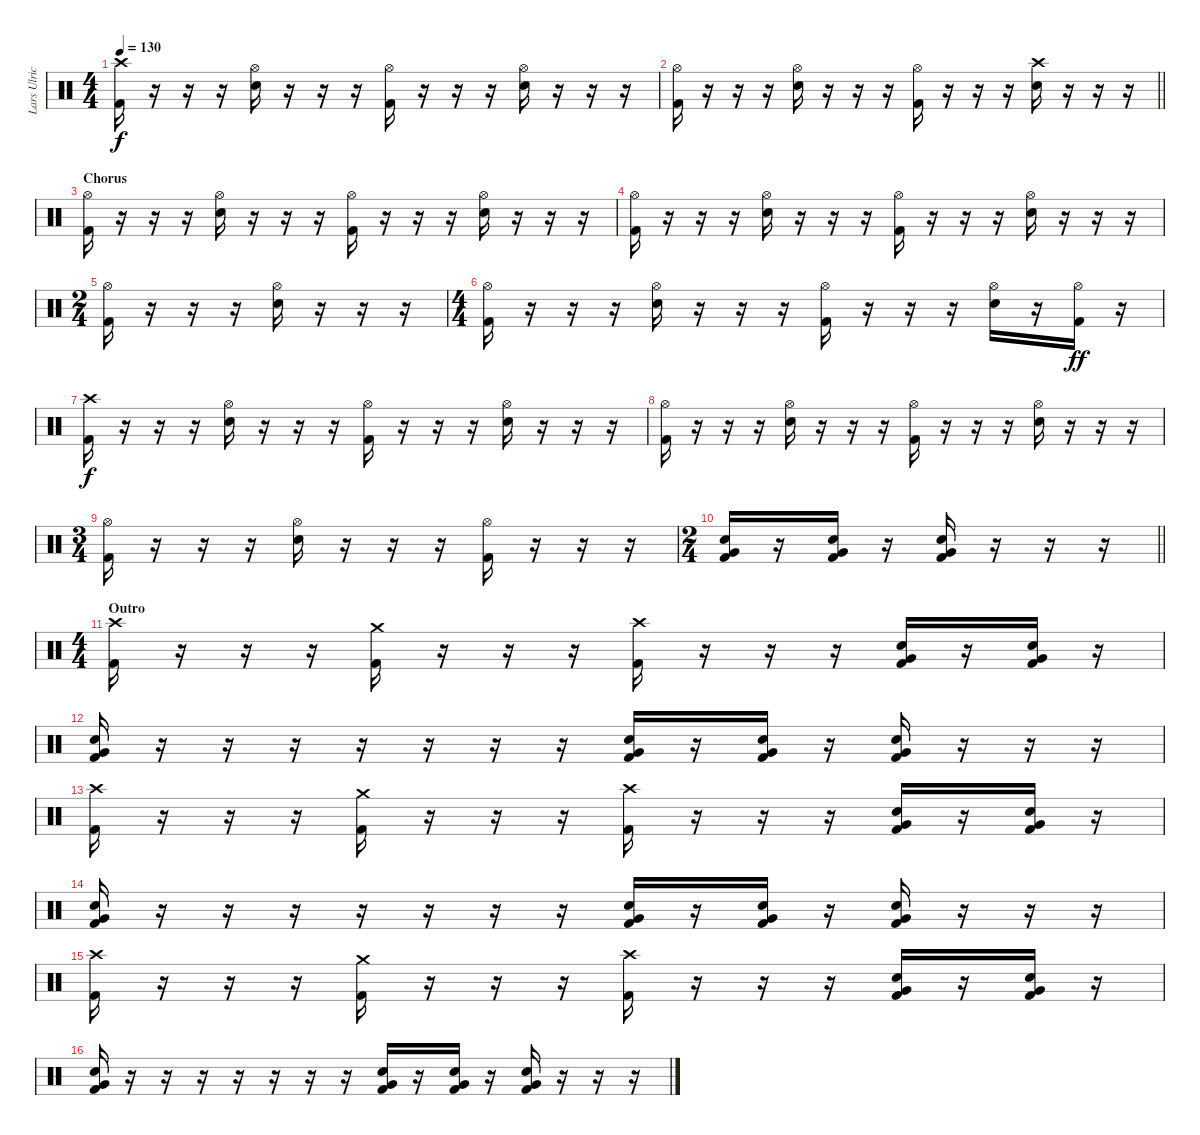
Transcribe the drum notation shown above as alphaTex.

\track ("Lars Ulrich" "Lars Ulric") {instrument percussion}
\staff {score}
\articulation defaults
\ts (4 4)
\tempo 130
\clef neutral
\ks c
("Crash high (hit)" "Kick (hit) 2").16{dy f} r.16 r.16 r.16 ("Electric Snare (hit)" "Hi-Hat (open)").16 r.16 r.16 r.16 ("Hi-Hat (open)" "Kick (hit) 2").16 r.16 r.16 r.16 ("Electric Snare (hit)" "Hi-Hat (open)").16 r.16 r.16 r.16 |
\barLineRight lightlight
("Hi-Hat (open)" "Kick (hit) 2").16 r.16 r.16 r.16 ("Electric Snare (hit)" "Hi-Hat (open)").16 r.16 r.16 r.16 ("Hi-Hat (open)" "Kick (hit) 2").16 r.16 r.16 r.16 ("Crash high (hit)" "Electric Snare (hit)").16 r.16 r.16 r.16 |
\section ("" "Chorus")
("Hi-Hat (open)" "Kick (hit) 2").16 r.16 r.16 r.16 ("Electric Snare (hit)" "Hi-Hat (open)").16 r.16 r.16 r.16 ("Hi-Hat (open)" "Kick (hit) 2").16 r.16 r.16 r.16 ("Electric Snare (hit)" "Hi-Hat (open)").16 r.16 r.16 r.16 |
("Hi-Hat (open)" "Kick (hit) 2").16 r.16 r.16 r.16 ("Electric Snare (hit)" "Hi-Hat (open)").16 r.16 r.16 r.16 ("Hi-Hat (open)" "Kick (hit) 2").16 r.16 r.16 r.16 ("Electric Snare (hit)" "Hi-Hat (open)").16 r.16 r.16 r.16 |
\ts (2 4)
("Hi-Hat (open)" "Kick (hit) 2").16 r.16 r.16 r.16 ("Electric Snare (hit)" "Hi-Hat (open)").16 r.16 r.16 r.16 |
\ts (4 4)
("Hi-Hat (open)" "Kick (hit) 2").16 r.16 r.16 r.16 ("Electric Snare (hit)" "Hi-Hat (open)").16 r.16 r.16 r.16 ("Hi-Hat (open)" "Kick (hit) 2").16 r.16 r.16 r.16 ("Electric Snare (hit)" "Hi-Hat (open)").16 r.16 ("Hi-Hat (open)" "Kick (hit) 2").16{dy ff} r.16 |
("Crash high (hit)" "Kick (hit) 2").16{dy f} r.16 r.16 r.16 ("Electric Snare (hit)" "Hi-Hat (open)").16 r.16 r.16 r.16 ("Hi-Hat (open)" "Kick (hit) 2").16 r.16 r.16 r.16 ("Electric Snare (hit)" "Hi-Hat (open)").16 r.16 r.16 r.16 |
("Hi-Hat (open)" "Kick (hit) 2").16 r.16 r.16 r.16 ("Electric Snare (hit)" "Hi-Hat (open)").16 r.16 r.16 r.16 ("Hi-Hat (open)" "Kick (hit) 2").16 r.16 r.16 r.16 ("Electric Snare (hit)" "Hi-Hat (open)").16 r.16 r.16 r.16 |
\ts (3 4)
("Hi-Hat (open)" "Kick (hit) 2").16 r.16 r.16 r.16 ("Electric Snare (hit)" "Hi-Hat (open)").16 r.16 r.16 r.16 ("Hi-Hat (open)" "Kick (hit) 2").16 r.16 r.16 r.16 |
\ts (2 4)
\barLineRight lightlight
("Electric Snare (hit)" "Very Low Tom (hit)" "Kick (hit) 2").16 r.16 ("Electric Snare (hit)" "Very Low Tom (hit)" "Kick (hit) 2").16 r.16 ("Electric Snare (hit)" "Very Low Tom (hit)" "Kick (hit) 2").16 r.16 r.16 r.16 |
\ts (4 4)
\section ("" "Outro")
("Crash high (hit)" "Kick (hit) 2").16 r.16 r.16 r.16 ("Crash medium (hit)" "Kick (hit) 2").16 r.16 r.16 r.16 ("Crash high (hit)" "Kick (hit) 2").16 r.16 r.16 r.16 ("Electric Snare (hit)" "Very Low Tom (hit)" "Kick (hit) 2").16 r.16 ("Electric Snare (hit)" "Very Low Tom (hit)" "Kick (hit) 2").16 r.16 |
("Electric Snare (hit)" "Very Low Tom (hit)" "Kick (hit) 2").16 r.16 r.16 r.16 r.16 r.16 r.16 r.16 ("Electric Snare (hit)" "Very Low Tom (hit)" "Kick (hit) 2").16 r.16 ("Electric Snare (hit)" "Very Low Tom (hit)" "Kick (hit) 2").16 r.16 ("Electric Snare (hit)" "Very Low Tom (hit)" "Kick (hit) 2").16 r.16 r.16 r.16 |
("Crash high (hit)" "Kick (hit) 2").16 r.16 r.16 r.16 ("Crash medium (hit)" "Kick (hit) 2").16 r.16 r.16 r.16 ("Crash high (hit)" "Kick (hit) 2").16 r.16 r.16 r.16 ("Electric Snare (hit)" "Very Low Tom (hit)" "Kick (hit) 2").16 r.16 ("Electric Snare (hit)" "Very Low Tom (hit)" "Kick (hit) 2").16 r.16 |
("Electric Snare (hit)" "Very Low Tom (hit)" "Kick (hit) 2").16 r.16 r.16 r.16 r.16 r.16 r.16 r.16 ("Electric Snare (hit)" "Very Low Tom (hit)" "Kick (hit) 2").16 r.16 ("Electric Snare (hit)" "Very Low Tom (hit)" "Kick (hit) 2").16 r.16 ("Electric Snare (hit)" "Very Low Tom (hit)" "Kick (hit) 2").16 r.16 r.16 r.16 |
("Crash high (hit)" "Kick (hit) 2").16 r.16 r.16 r.16 ("Crash medium (hit)" "Kick (hit) 2").16 r.16 r.16 r.16 ("Crash high (hit)" "Kick (hit) 2").16 r.16 r.16 r.16 ("Electric Snare (hit)" "Very Low Tom (hit)" "Kick (hit) 2").16 r.16 ("Electric Snare (hit)" "Very Low Tom (hit)" "Kick (hit) 2").16 r.16 |
("Electric Snare (hit)" "Very Low Tom (hit)" "Kick (hit) 2").16 r.16 r.16 r.16 r.16 r.16 r.16 r.16 ("Electric Snare (hit)" "Very Low Tom (hit)" "Kick (hit) 2").16 r.16 ("Electric Snare (hit)" "Very Low Tom (hit)" "Kick (hit) 2").16 r.16 ("Electric Snare (hit)" "Very Low Tom (hit)" "Kick (hit) 2").16 r.16 r.16 r.16
